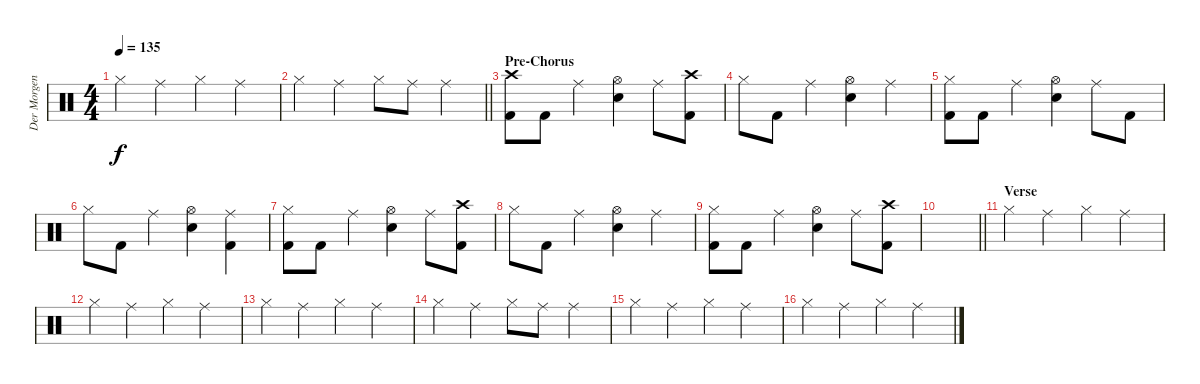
\track ("Der Morgenstern" "Der Morgen") {instrument percussion}
\staff {score}
\articulation defaults
\ts (4 4)
\tempo 135
\clef neutral
\ks c "Hi-Hat (closed)".4{dy f} "Ride (middle)".4 "Hi-Hat (closed)".4 "Ride (middle)".4
|
\barLineRight lightlight "Hi-Hat (closed)".4 "Ride (middle)".4 "Hi-Hat (closed)".8 "Ride (middle)".8 "Ride (middle)".4
|
\section ("" "Pre-Chorus")
("Crash high (hit)" "Kick (hit) 2").8 "Kick (hit) 2".8 "Ride (middle)".4 ("Hi-Hat (open)" "Electric Snare (hit)").4 "Ride (middle)".8 ("Crash high (hit)" "Kick (hit) 2").8 |
"Hi-Hat (closed)".8 "Kick (hit) 2".8 "Ride (middle)".4 ("Hi-Hat (open)" "Electric Snare (hit)").4 "Ride (middle)".4 |
("Hi-Hat (closed)" "Kick (hit) 2").8 "Kick (hit) 2".8 "Ride (middle)".4 ("Hi-Hat (open)" "Electric Snare (hit)").4 "Ride (middle)".8 "Kick (hit) 2".8 |
"Hi-Hat (closed)".8 "Kick (hit) 2".8 "Ride (middle)".4 ("Hi-Hat (open)" "Electric Snare (hit)").4 ("Ride (middle)" "Kick (hit) 2").4 |
("Hi-Hat (closed)" "Kick (hit) 2").8 "Kick (hit) 2".8 "Ride (middle)".4 ("Hi-Hat (open)" "Electric Snare (hit)").4 "Ride (middle)".8 ("Crash high (hit)" "Kick (hit) 2").8 |
"Hi-Hat (closed)".8 "Kick (hit) 2".8 "Ride (middle)".4 ("Hi-Hat (open)" "Electric Snare (hit)").4 "Ride (middle)".4 |
("Hi-Hat (closed)" "Kick (hit) 2").8 "Kick (hit) 2".8 "Ride (middle)".4 ("Hi-Hat (open)" "Electric Snare (hit)").4 "Ride (middle)".8 ("Crash high (hit)" "Kick (hit) 2").8 |
\barLineRight lightlight
|
\section ("" "Verse")
"Hi-Hat (closed)".4 "Ride (middle)".4 "Hi-Hat (closed)".4 "Ride (middle)".4 |
"Hi-Hat (closed)".4 "Ride (middle)".4 "Hi-Hat (closed)".4 "Ride (middle)".4 |
"Hi-Hat (closed)".4 "Ride (middle)".4 "Hi-Hat (closed)".4 "Ride (middle)".4 |
"Hi-Hat (closed)".4 "Ride (middle)".4 "Hi-Hat (closed)".8 "Ride (middle)".8 "Ride (middle)".4 |
"Hi-Hat (closed)".4 "Ride (middle)".4 "Hi-Hat (closed)".4 "Ride (middle)".4 |
"Hi-Hat (closed)".4 "Ride (middle)".4 "Hi-Hat (closed)".4 "Ride (middle)".4
